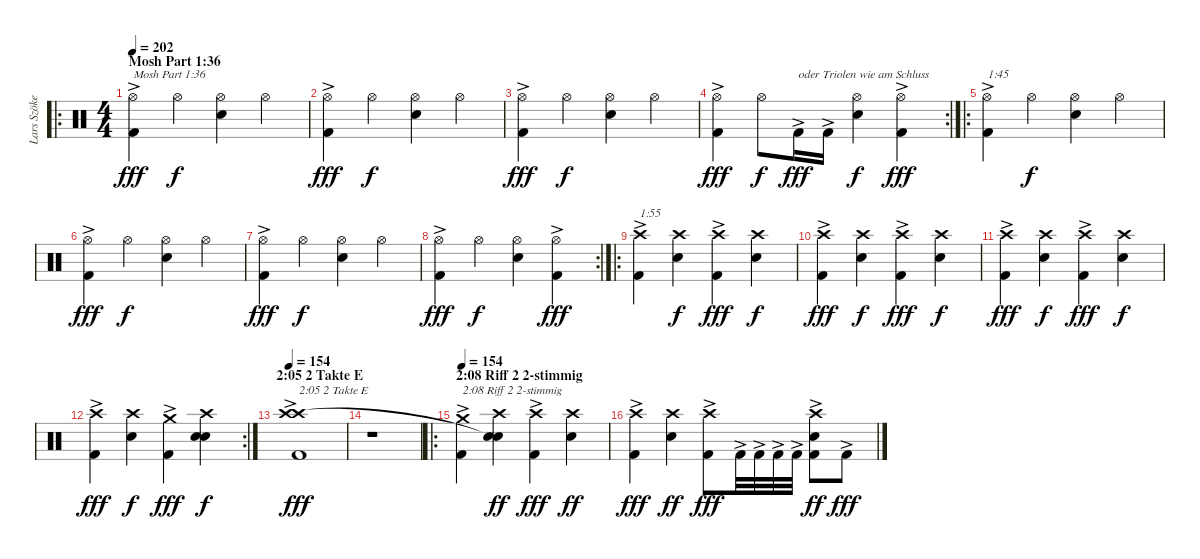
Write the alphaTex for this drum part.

\track ("Lars Szöke" "Lars Szöke") {instrument percussion}
\staff {score}
\articulation defaults
\ro
\ts (4 4)
\section ("" "Mosh Part 1:36")
\tempo 202
\clef neutral
\ks c
("Kick (hit) 2"{ac} "Hi-Hat (open)").4{txt "Mosh Part 1:36" dy fff} "Hi-Hat (open)".4{dy f} ("Snare (hit) 2" "Hi-Hat (open)").4 "Hi-Hat (open)".4 |
("Kick (hit) 2"{ac} "Hi-Hat (open)").4{dy fff} "Hi-Hat (open)".4{dy f} ("Snare (hit) 2" "Hi-Hat (open)").4 "Hi-Hat (open)".4 |
("Kick (hit) 2"{ac} "Hi-Hat (open)").4{dy fff} "Hi-Hat (open)".4{dy f} ("Snare (hit) 2" "Hi-Hat (open)").4 "Hi-Hat (open)".4 |
\rc 2
("Kick (hit) 2"{ac} "Hi-Hat (open)").4{dy fff} "Hi-Hat (open)".8{dy f} "Kick (hit) 2"{ac}.16{txt "oder Triolen wie am Schluss" dy fff} "Kick (hit) 2"{ac}.16 ("Snare (hit) 2" "Hi-Hat (open)").4{dy f} ("Kick (hit) 2"{ac} "Hi-Hat (open)").4{dy fff} |
\ro
("Kick (hit) 2"{ac} "Hi-Hat (open)").4{txt "1:45"} "Hi-Hat (open)".4{dy f} ("Snare (hit) 2" "Hi-Hat (open)").4 "Hi-Hat (open)".4 |
("Kick (hit) 2"{ac} "Hi-Hat (open)").4{dy fff} "Hi-Hat (open)".4{dy f} ("Snare (hit) 2" "Hi-Hat (open)").4 "Hi-Hat (open)".4 |
("Kick (hit) 2"{ac} "Hi-Hat (open)").4{dy fff} "Hi-Hat (open)".4{dy f} ("Snare (hit) 2" "Hi-Hat (open)").4 "Hi-Hat (open)".4 |
\rc 2
("Kick (hit) 2"{ac} "Hi-Hat (open)").4{dy fff} "Hi-Hat (open)".4{dy f} ("Snare (hit) 2" "Hi-Hat (open)").4 ("Kick (hit) 2"{ac} "Hi-Hat (open)").4{dy fff} |
\ro
("Kick (hit) 2"{ac} "Crash high (hit)"{ac}).4{txt "1:55"} ("Snare (hit) 2" "Crash high (hit)").4{dy f} ("Kick (hit) 2"{ac} "Crash high (hit)").4{dy fff} ("Snare (hit) 2" "Crash high (hit)").4{dy f} |
("Kick (hit) 2"{ac} "Crash high (hit)").4{dy fff} ("Snare (hit) 2" "Crash high (hit)").4{dy f} ("Kick (hit) 2"{ac} "Crash high (hit)").4{dy fff} ("Snare (hit) 2" "Crash high (hit)").4{dy f} |
("Kick (hit) 2"{ac} "Crash high (hit)").4{dy fff} ("Snare (hit) 2" "Crash high (hit)").4{dy f} ("Kick (hit) 2"{ac} "Crash high (hit)").4{dy fff} ("Snare (hit) 2" "Crash high (hit)").4{dy f} |
\rc 2
("Kick (hit) 2"{ac} "Crash high (hit)").4{dy fff} ("Snare (hit) 2" "Crash high (hit)").4{dy f} ("Kick (hit) 2"{ac} "Crash medium (hit)").4{dy fff} ("Snare (hit) 2" "Crash high (hit)" "Snare (hit)").4{dy f} |
\section ("" "2:05 2 Takte E")
\tempo 154
("Kick (hit) 2"{ac} "Crash high (hit)"{ac} "Crash high (hit)"{ac}).1{txt "2:05 2 Takte E" dy fff} |
r.1 |
\ro
\section ("" "2:08 Riff 2 2-stimmig")
\tempo 154
("Kick (hit) 2" "Crash medium (hit)"{ac}).4{txt "2:08 Riff 2 2-stimmig"} ("Snare (hit) 2" "Crash high (hit)" "Snare (hit)"{t}).4{dy ff} ("Kick (hit) 2"{ac} "Crash high (hit)").4{dy fff} ("Snare (hit) 2" "Crash high (hit)").4{dy ff} |
("Kick (hit) 2"{ac} "Crash high (hit)").4{dy fff} ("Snare (hit) 2" "Crash high (hit)").4{dy ff} ("Kick (hit) 2"{ac} "Crash high (hit)").8{dy fff} "Kick (hit) 2"{ac}.32 "Kick (hit) 2"{ac}.32 "Kick (hit) 2"{ac}.32 "Kick (hit) 2"{ac}.32 ("Kick (hit) 2"{ac} "Snare (hit) 2" "Crash high (hit)").8{dy ff} "Kick (hit) 2"{ac}.8{dy fff}
